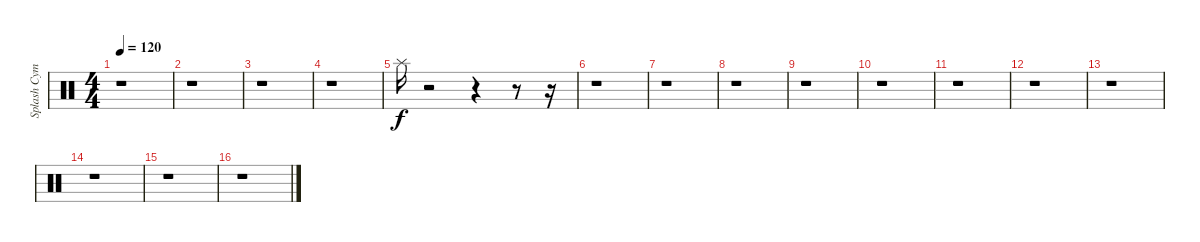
\track ("Splash Cymbal" "Splash Cym") {instrument percussion}
\staff {score}
\articulation defaults
\ts (4 4)
\tempo 120
\clef neutral
\ks c
r.1{dy f} |
r.1 |
r.1 |
r.1 |
"Splash (hit)".16 r.2 r.4 r.8 r.16 |
r.1 |
r.1 |
r.1 |
r.1 |
r.1 |
r.1 |
r.1 |
r.1 |
r.1 |
r.1 |
r.1
